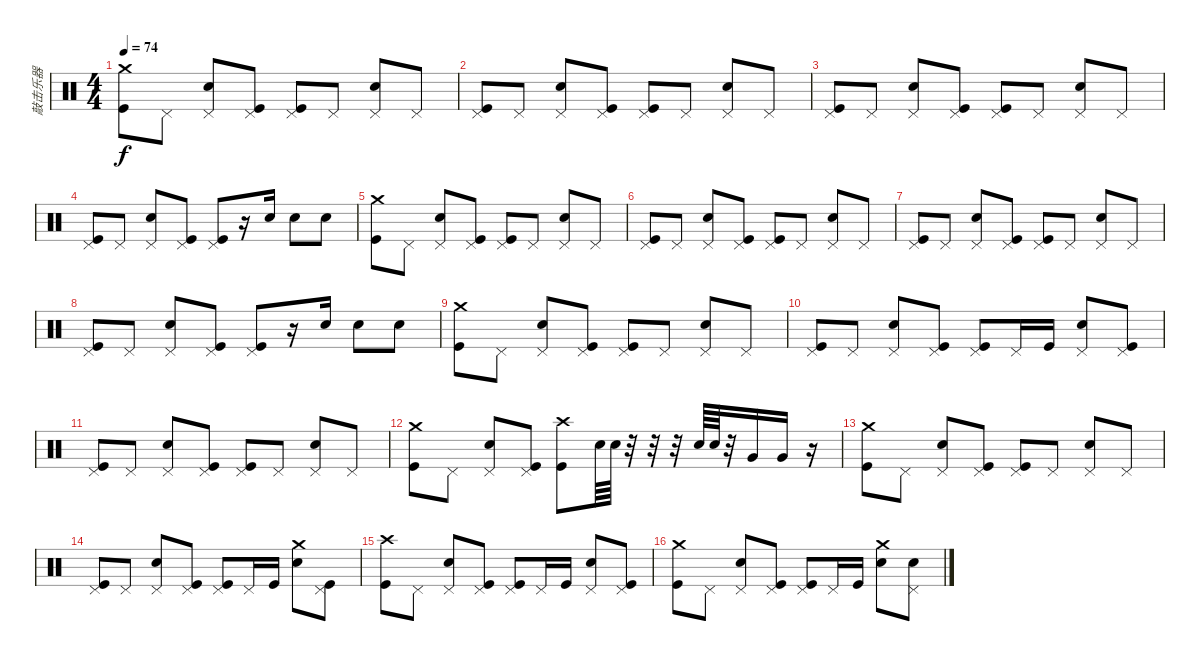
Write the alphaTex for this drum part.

\track ("敲击乐器" "敲击乐器") {instrument percussion}
\staff {score}
\articulation defaults
\ts (4 4)
\tempo 74
\clef neutral
\ks c
("Crash medium (hit)" "Kick (hit)").8{dy f} "Pedal Hi-Hat (hit)".8 ("Pedal Hi-Hat (hit)" "Snare (hit) 2").8 ("Pedal Hi-Hat (hit)" "Kick (hit)").8 ("Pedal Hi-Hat (hit)" "Kick (hit)").8 "Pedal Hi-Hat (hit)".8 ("Pedal Hi-Hat (hit)" "Snare (hit) 2").8 "Pedal Hi-Hat (hit)".8 |
("Pedal Hi-Hat (hit)" "Kick (hit)").8 "Pedal Hi-Hat (hit)".8 ("Pedal Hi-Hat (hit)" "Snare (hit) 2").8 ("Pedal Hi-Hat (hit)" "Kick (hit)").8 ("Pedal Hi-Hat (hit)" "Kick (hit)").8 "Pedal Hi-Hat (hit)".8 ("Pedal Hi-Hat (hit)" "Snare (hit) 2").8 "Pedal Hi-Hat (hit)".8 |
("Pedal Hi-Hat (hit)" "Kick (hit)").8 "Pedal Hi-Hat (hit)".8 ("Pedal Hi-Hat (hit)" "Snare (hit) 2").8 ("Pedal Hi-Hat (hit)" "Kick (hit)").8 ("Pedal Hi-Hat (hit)" "Kick (hit)").8 "Pedal Hi-Hat (hit)".8 ("Pedal Hi-Hat (hit)" "Snare (hit) 2").8 "Pedal Hi-Hat (hit)".8 |
("Pedal Hi-Hat (hit)" "Kick (hit)").8 "Pedal Hi-Hat (hit)".8 ("Pedal Hi-Hat (hit)" "Snare (hit) 2").8 ("Pedal Hi-Hat (hit)" "Kick (hit)").8 ("Pedal Hi-Hat (hit)" "Kick (hit)").8 r.16 "Snare (hit) 2".16 "Snare (hit) 2".8 "Snare (hit) 2".8 |
("Crash medium (hit)" "Kick (hit)").8 "Pedal Hi-Hat (hit)".8 ("Pedal Hi-Hat (hit)" "Snare (hit) 2").8 ("Pedal Hi-Hat (hit)" "Kick (hit)").8 ("Pedal Hi-Hat (hit)" "Kick (hit)").8 "Pedal Hi-Hat (hit)".8 ("Pedal Hi-Hat (hit)" "Snare (hit) 2").8 "Pedal Hi-Hat (hit)".8 |
("Pedal Hi-Hat (hit)" "Kick (hit)").8 "Pedal Hi-Hat (hit)".8 ("Pedal Hi-Hat (hit)" "Snare (hit) 2").8 ("Pedal Hi-Hat (hit)" "Kick (hit)").8 ("Pedal Hi-Hat (hit)" "Kick (hit)").8 "Pedal Hi-Hat (hit)".8 ("Pedal Hi-Hat (hit)" "Snare (hit) 2").8 "Pedal Hi-Hat (hit)".8 |
("Pedal Hi-Hat (hit)" "Kick (hit)").8 "Pedal Hi-Hat (hit)".8 ("Pedal Hi-Hat (hit)" "Snare (hit) 2").8 ("Pedal Hi-Hat (hit)" "Kick (hit)").8 ("Pedal Hi-Hat (hit)" "Kick (hit)").8 "Pedal Hi-Hat (hit)".8 ("Pedal Hi-Hat (hit)" "Snare (hit) 2").8 "Pedal Hi-Hat (hit)".8 |
("Pedal Hi-Hat (hit)" "Kick (hit)").8 "Pedal Hi-Hat (hit)".8 ("Pedal Hi-Hat (hit)" "Snare (hit) 2").8 ("Pedal Hi-Hat (hit)" "Kick (hit)").8 ("Pedal Hi-Hat (hit)" "Kick (hit)").8 r.16 "Snare (hit) 2".16 "Snare (hit) 2".8 "Snare (hit) 2".8 |
("Crash medium (hit)" "Kick (hit)").8 "Pedal Hi-Hat (hit)".8 ("Pedal Hi-Hat (hit)" "Snare (hit) 2").8 ("Pedal Hi-Hat (hit)" "Kick (hit)").8 ("Pedal Hi-Hat (hit)" "Kick (hit)").8 "Pedal Hi-Hat (hit)".8 ("Pedal Hi-Hat (hit)" "Snare (hit) 2").8 "Pedal Hi-Hat (hit)".8 |
("Pedal Hi-Hat (hit)" "Kick (hit)").8 "Pedal Hi-Hat (hit)".8 ("Pedal Hi-Hat (hit)" "Snare (hit) 2").8 ("Pedal Hi-Hat (hit)" "Kick (hit)").8 ("Pedal Hi-Hat (hit)" "Kick (hit)").8 "Pedal Hi-Hat (hit)".16 "Kick (hit)".16 ("Pedal Hi-Hat (hit)" "Snare (hit) 2").8 ("Pedal Hi-Hat (hit)" "Kick (hit)").8 |
("Pedal Hi-Hat (hit)" "Kick (hit)").8 "Pedal Hi-Hat (hit)".8 ("Pedal Hi-Hat (hit)" "Snare (hit) 2").8 ("Pedal Hi-Hat (hit)" "Kick (hit)").8 ("Pedal Hi-Hat (hit)" "Kick (hit)").8 "Pedal Hi-Hat (hit)".8 ("Pedal Hi-Hat (hit)" "Snare (hit) 2").8 "Pedal Hi-Hat (hit)".8 |
("Crash medium (hit)" "Kick (hit)").8 "Pedal Hi-Hat (hit)".8 ("Pedal Hi-Hat (hit)" "Snare (hit) 2").8 ("Pedal Hi-Hat (hit)" "Kick (hit)").8 ("Crash high (hit)" "Kick (hit)").8 "Snare (hit) 2".64 "Snare (hit) 2".64 r.32 r.32 r.32 "Snare (hit) 2".64 "Snare (hit) 2".64 r.32 "Very Low Tom (hit)".16 "Very Low Tom (hit)".16 r.16 |
("Crash medium (hit)" "Kick (hit)").8 "Pedal Hi-Hat (hit)".8 ("Pedal Hi-Hat (hit)" "Snare (hit) 2").8 ("Pedal Hi-Hat (hit)" "Kick (hit)").8 ("Pedal Hi-Hat (hit)" "Kick (hit)").8 "Pedal Hi-Hat (hit)".8 ("Pedal Hi-Hat (hit)" "Snare (hit) 2").8 "Pedal Hi-Hat (hit)".8 |
("Pedal Hi-Hat (hit)" "Kick (hit)").8 "Pedal Hi-Hat (hit)".8 ("Pedal Hi-Hat (hit)" "Snare (hit) 2").8 ("Pedal Hi-Hat (hit)" "Kick (hit)").8 ("Pedal Hi-Hat (hit)" "Kick (hit)").8 "Pedal Hi-Hat (hit)".16 "Kick (hit)".16 ("Crash medium (hit)" "Snare (hit) 2").8 ("Pedal Hi-Hat (hit)" "Kick (hit)").8 |
("Crash high (hit)" "Kick (hit)").8 "Pedal Hi-Hat (hit)".8 ("Pedal Hi-Hat (hit)" "Snare (hit) 2").8 ("Pedal Hi-Hat (hit)" "Kick (hit)").8 ("Pedal Hi-Hat (hit)" "Kick (hit)").8 "Pedal Hi-Hat (hit)".16 "Kick (hit)".16 ("Pedal Hi-Hat (hit)" "Snare (hit) 2").8 ("Pedal Hi-Hat (hit)" "Kick (hit)").8 |
("Crash medium (hit)" "Kick (hit)").8 "Pedal Hi-Hat (hit)".8 ("Pedal Hi-Hat (hit)" "Snare (hit) 2").8 ("Pedal Hi-Hat (hit)" "Kick (hit)").8 ("Pedal Hi-Hat (hit)" "Kick (hit)").8 "Pedal Hi-Hat (hit)".16 "Kick (hit)".16 ("Crash medium (hit)" "Snare (hit) 2").8 ("Pedal Hi-Hat (hit)" "Snare (hit) 2").8
